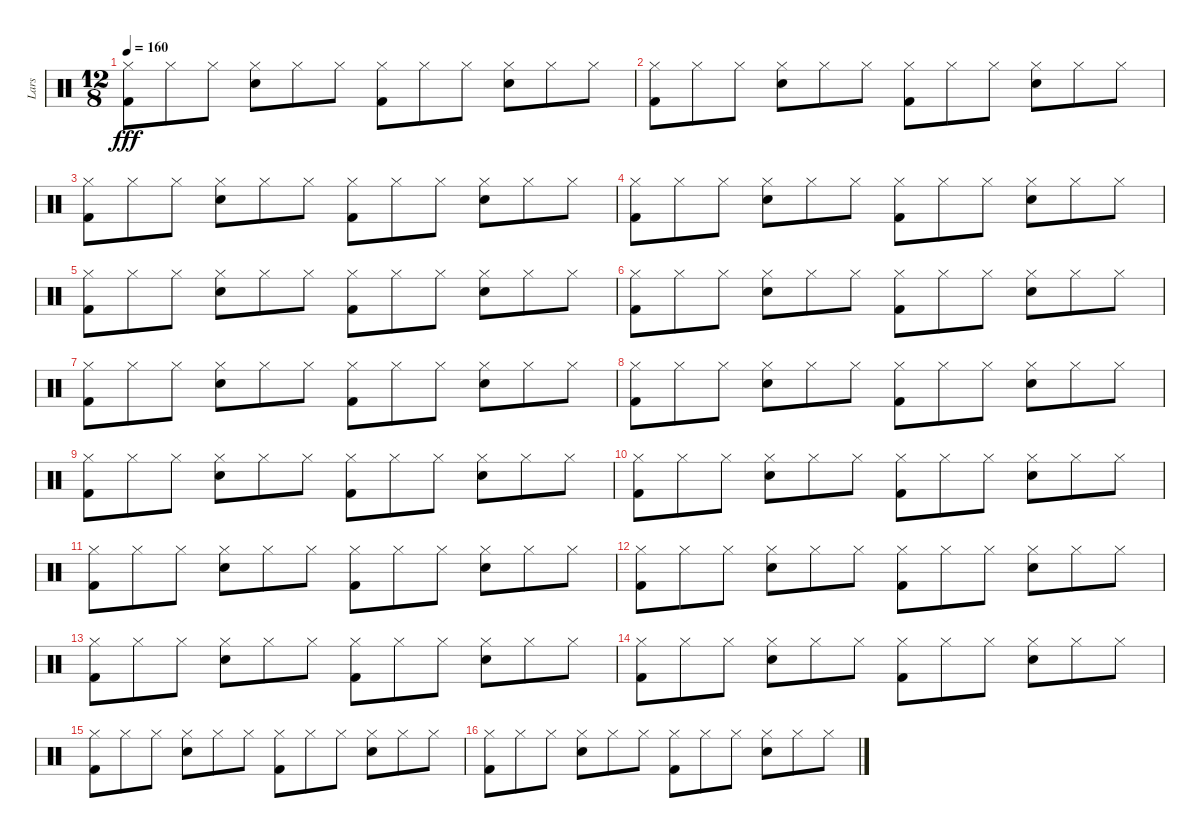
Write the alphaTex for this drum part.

\track ("Lars" "Lars") {instrument percussion}
\staff {score}
\articulation defaults
\ts (12 8)
\tempo 160
\clef neutral
\ks c
("Hi-Hat (closed)" "Kick (hit) 2").8{dy fff} "Hi-Hat (closed)".8 "Hi-Hat (closed)".8 ("Hi-Hat (closed)" "Electric Snare (hit)").8 "Hi-Hat (closed)".8 "Hi-Hat (closed)".8 ("Hi-Hat (closed)" "Kick (hit) 2").8 "Hi-Hat (closed)".8 "Hi-Hat (closed)".8 ("Hi-Hat (closed)" "Electric Snare (hit)").8 "Hi-Hat (closed)".8 "Hi-Hat (closed)".8 |
("Hi-Hat (closed)" "Kick (hit) 2").8 "Hi-Hat (closed)".8 "Hi-Hat (closed)".8 ("Hi-Hat (closed)" "Electric Snare (hit)").8 "Hi-Hat (closed)".8 "Hi-Hat (closed)".8 ("Hi-Hat (closed)" "Kick (hit) 2").8 "Hi-Hat (closed)".8 "Hi-Hat (closed)".8 ("Hi-Hat (closed)" "Electric Snare (hit)").8 "Hi-Hat (closed)".8 "Hi-Hat (closed)".8 |
("Hi-Hat (closed)" "Kick (hit) 2").8 "Hi-Hat (closed)".8 "Hi-Hat (closed)".8 ("Hi-Hat (closed)" "Electric Snare (hit)").8 "Hi-Hat (closed)".8 "Hi-Hat (closed)".8 ("Hi-Hat (closed)" "Kick (hit) 2").8 "Hi-Hat (closed)".8 "Hi-Hat (closed)".8 ("Hi-Hat (closed)" "Electric Snare (hit)").8 "Hi-Hat (closed)".8 "Hi-Hat (closed)".8 |
("Hi-Hat (closed)" "Kick (hit) 2").8 "Hi-Hat (closed)".8 "Hi-Hat (closed)".8 ("Hi-Hat (closed)" "Electric Snare (hit)").8 "Hi-Hat (closed)".8 "Hi-Hat (closed)".8 ("Hi-Hat (closed)" "Kick (hit) 2").8 "Hi-Hat (closed)".8 "Hi-Hat (closed)".8 ("Hi-Hat (closed)" "Electric Snare (hit)").8 "Hi-Hat (closed)".8 "Hi-Hat (closed)".8 |
("Hi-Hat (closed)" "Kick (hit) 2").8 "Hi-Hat (closed)".8 "Hi-Hat (closed)".8 ("Hi-Hat (closed)" "Electric Snare (hit)").8 "Hi-Hat (closed)".8 "Hi-Hat (closed)".8 ("Hi-Hat (closed)" "Kick (hit) 2").8 "Hi-Hat (closed)".8 "Hi-Hat (closed)".8 ("Hi-Hat (closed)" "Electric Snare (hit)").8 "Hi-Hat (closed)".8 "Hi-Hat (closed)".8 |
("Hi-Hat (closed)" "Kick (hit) 2").8 "Hi-Hat (closed)".8 "Hi-Hat (closed)".8 ("Hi-Hat (closed)" "Electric Snare (hit)").8 "Hi-Hat (closed)".8 "Hi-Hat (closed)".8 ("Hi-Hat (closed)" "Kick (hit) 2").8 "Hi-Hat (closed)".8 "Hi-Hat (closed)".8 ("Hi-Hat (closed)" "Electric Snare (hit)").8 "Hi-Hat (closed)".8 "Hi-Hat (closed)".8 |
("Hi-Hat (closed)" "Kick (hit) 2").8 "Hi-Hat (closed)".8 "Hi-Hat (closed)".8 ("Hi-Hat (closed)" "Electric Snare (hit)").8 "Hi-Hat (closed)".8 "Hi-Hat (closed)".8 ("Hi-Hat (closed)" "Kick (hit) 2").8 "Hi-Hat (closed)".8 "Hi-Hat (closed)".8 ("Hi-Hat (closed)" "Electric Snare (hit)").8 "Hi-Hat (closed)".8 "Hi-Hat (closed)".8 |
("Hi-Hat (closed)" "Kick (hit) 2").8 "Hi-Hat (closed)".8 "Hi-Hat (closed)".8 ("Hi-Hat (closed)" "Electric Snare (hit)").8 "Hi-Hat (closed)".8 "Hi-Hat (closed)".8 ("Hi-Hat (closed)" "Kick (hit) 2").8 "Hi-Hat (closed)".8 "Hi-Hat (closed)".8 ("Hi-Hat (closed)" "Electric Snare (hit)").8 "Hi-Hat (closed)".8 "Hi-Hat (closed)".8 |
("Hi-Hat (closed)" "Kick (hit) 2").8 "Hi-Hat (closed)".8 "Hi-Hat (closed)".8 ("Hi-Hat (closed)" "Electric Snare (hit)").8 "Hi-Hat (closed)".8 "Hi-Hat (closed)".8 ("Hi-Hat (closed)" "Kick (hit) 2").8 "Hi-Hat (closed)".8 "Hi-Hat (closed)".8 ("Hi-Hat (closed)" "Electric Snare (hit)").8 "Hi-Hat (closed)".8 "Hi-Hat (closed)".8 |
("Hi-Hat (closed)" "Kick (hit) 2").8 "Hi-Hat (closed)".8 "Hi-Hat (closed)".8 ("Hi-Hat (closed)" "Electric Snare (hit)").8 "Hi-Hat (closed)".8 "Hi-Hat (closed)".8 ("Hi-Hat (closed)" "Kick (hit) 2").8 "Hi-Hat (closed)".8 "Hi-Hat (closed)".8 ("Hi-Hat (closed)" "Electric Snare (hit)").8 "Hi-Hat (closed)".8 "Hi-Hat (closed)".8 |
("Hi-Hat (closed)" "Kick (hit) 2").8 "Hi-Hat (closed)".8 "Hi-Hat (closed)".8 ("Hi-Hat (closed)" "Electric Snare (hit)").8 "Hi-Hat (closed)".8 "Hi-Hat (closed)".8 ("Hi-Hat (closed)" "Kick (hit) 2").8 "Hi-Hat (closed)".8 "Hi-Hat (closed)".8 ("Hi-Hat (closed)" "Electric Snare (hit)").8 "Hi-Hat (closed)".8 "Hi-Hat (closed)".8 |
("Hi-Hat (closed)" "Kick (hit) 2").8 "Hi-Hat (closed)".8 "Hi-Hat (closed)".8 ("Hi-Hat (closed)" "Electric Snare (hit)").8 "Hi-Hat (closed)".8 "Hi-Hat (closed)".8 ("Hi-Hat (closed)" "Kick (hit) 2").8 "Hi-Hat (closed)".8 "Hi-Hat (closed)".8 ("Hi-Hat (closed)" "Electric Snare (hit)").8 "Hi-Hat (closed)".8 "Hi-Hat (closed)".8 |
("Hi-Hat (closed)" "Kick (hit) 2").8 "Hi-Hat (closed)".8 "Hi-Hat (closed)".8 ("Hi-Hat (closed)" "Electric Snare (hit)").8 "Hi-Hat (closed)".8 "Hi-Hat (closed)".8 ("Hi-Hat (closed)" "Kick (hit) 2").8 "Hi-Hat (closed)".8 "Hi-Hat (closed)".8 ("Hi-Hat (closed)" "Electric Snare (hit)").8 "Hi-Hat (closed)".8 "Hi-Hat (closed)".8 |
("Hi-Hat (closed)" "Kick (hit) 2").8 "Hi-Hat (closed)".8 "Hi-Hat (closed)".8 ("Hi-Hat (closed)" "Electric Snare (hit)").8 "Hi-Hat (closed)".8 "Hi-Hat (closed)".8 ("Hi-Hat (closed)" "Kick (hit) 2").8 "Hi-Hat (closed)".8 "Hi-Hat (closed)".8 ("Hi-Hat (closed)" "Electric Snare (hit)").8 "Hi-Hat (closed)".8 "Hi-Hat (closed)".8 |
("Hi-Hat (closed)" "Kick (hit) 2").8 "Hi-Hat (closed)".8 "Hi-Hat (closed)".8 ("Hi-Hat (closed)" "Electric Snare (hit)").8 "Hi-Hat (closed)".8 "Hi-Hat (closed)".8 ("Hi-Hat (closed)" "Kick (hit) 2").8 "Hi-Hat (closed)".8 "Hi-Hat (closed)".8 ("Hi-Hat (closed)" "Electric Snare (hit)").8 "Hi-Hat (closed)".8 "Hi-Hat (closed)".8 |
("Hi-Hat (closed)" "Kick (hit) 2").8 "Hi-Hat (closed)".8 "Hi-Hat (closed)".8 ("Hi-Hat (closed)" "Electric Snare (hit)").8 "Hi-Hat (closed)".8 "Hi-Hat (closed)".8 ("Hi-Hat (closed)" "Kick (hit) 2").8 "Hi-Hat (closed)".8 "Hi-Hat (closed)".8 ("Hi-Hat (closed)" "Electric Snare (hit)").8 "Hi-Hat (closed)".8 "Hi-Hat (closed)".8
